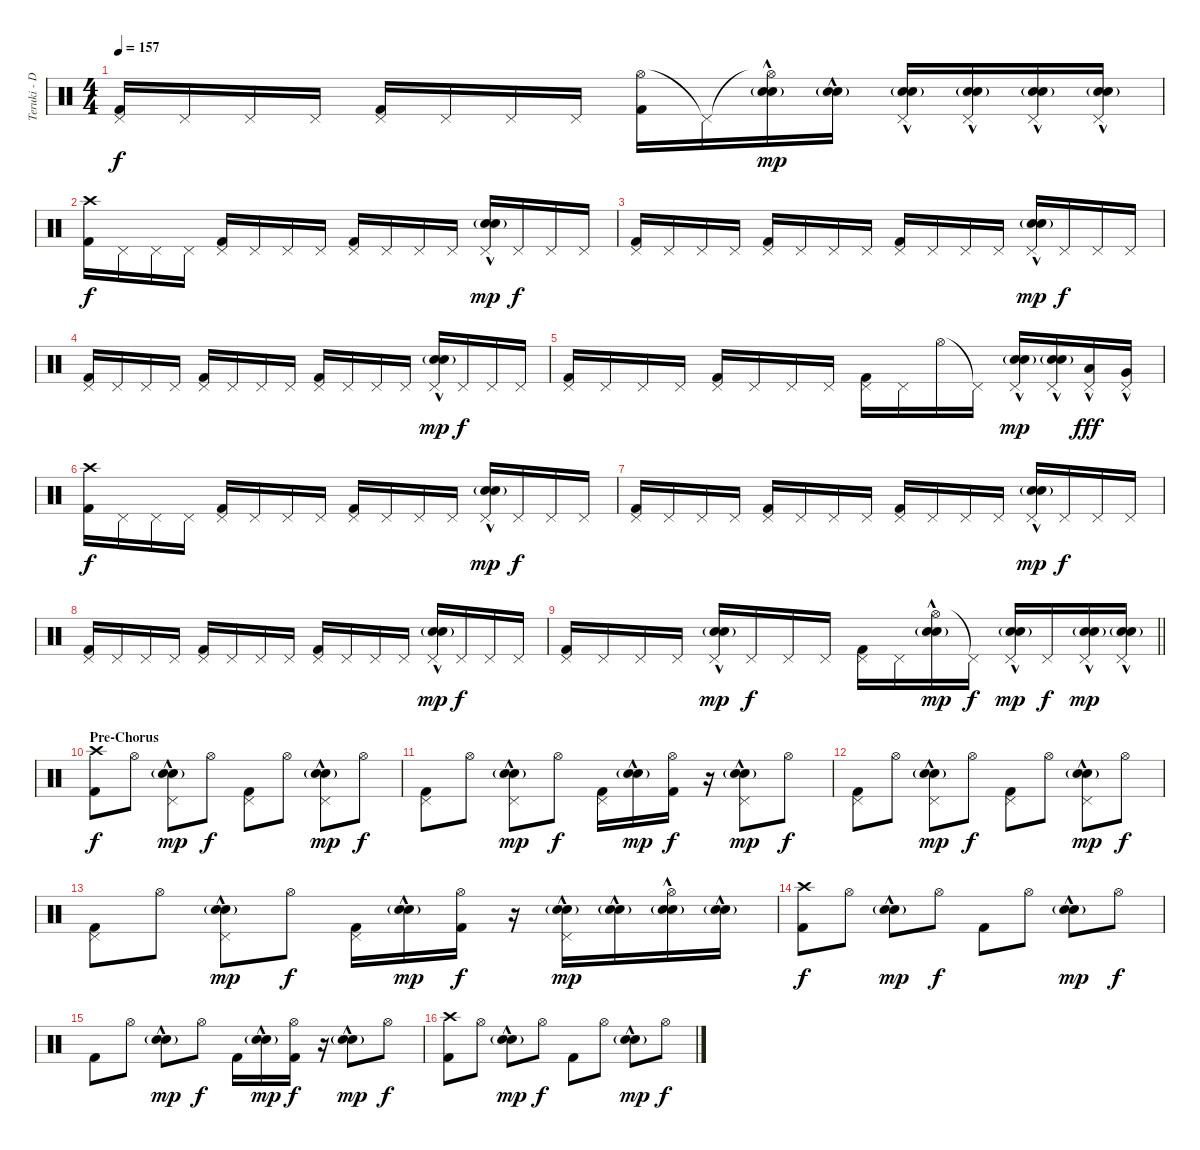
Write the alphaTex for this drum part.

\track ("Teruki - Drums" "Teruki - D") {instrument percussion}
\staff {score}
\articulation defaults
\ts (4 4)
\tempo 157
\clef neutral
\ks c
("Pedal Hi-Hat (hit)" "Kick (hit) 2").16{dy f} "Pedal Hi-Hat (hit)".16 "Pedal Hi-Hat (hit)".16 "Pedal Hi-Hat (hit)".16 ("Pedal Hi-Hat (hit)" "Kick (hit) 2").16 "Pedal Hi-Hat (hit)".16 "Pedal Hi-Hat (hit)".16 "Pedal Hi-Hat (hit)".16 ("Hi-Hat (open)" "Kick (hit) 2").16 "Pedal Hi-Hat (hit)"{t}.16 ("Hi-Hat (open)"{t} "Electric Snare (hit)"{hac} "Snare (hit) 2"{g}).16{dy mp} ("Electric Snare (hit)"{hac} "Snare (hit) 2"{g}).16 ("Pedal Hi-Hat (hit)" "Electric Snare (hit)"{hac} "Snare (hit) 2"{g}).16 ("Pedal Hi-Hat (hit)" "Electric Snare (hit)"{hac} "Snare (hit) 2"{g}).16 ("Pedal Hi-Hat (hit)" "Electric Snare (hit)"{hac} "Snare (hit) 2"{g}).16 ("Pedal Hi-Hat (hit)" "Electric Snare (hit)"{hac} "Snare (hit) 2"{g}).16 |
("Crash high (hit)" "Kick (hit) 2").16{dy f} "Pedal Hi-Hat (hit)".16 "Pedal Hi-Hat (hit)".16 "Pedal Hi-Hat (hit)".16 ("Pedal Hi-Hat (hit)" "Kick (hit) 2").16 "Pedal Hi-Hat (hit)".16 "Pedal Hi-Hat (hit)".16 "Pedal Hi-Hat (hit)".16 ("Pedal Hi-Hat (hit)" "Kick (hit) 2").16 "Pedal Hi-Hat (hit)".16 "Pedal Hi-Hat (hit)".16 "Pedal Hi-Hat (hit)".16 ("Pedal Hi-Hat (hit)" "Electric Snare (hit)"{hac} "Snare (hit) 2"{g}).16{dy mp} "Pedal Hi-Hat (hit)".16{dy f} "Pedal Hi-Hat (hit)".16 "Pedal Hi-Hat (hit)".16 |
("Pedal Hi-Hat (hit)" "Kick (hit) 2").16 "Pedal Hi-Hat (hit)".16 "Pedal Hi-Hat (hit)".16 "Pedal Hi-Hat (hit)".16 ("Pedal Hi-Hat (hit)" "Kick (hit) 2").16 "Pedal Hi-Hat (hit)".16 "Pedal Hi-Hat (hit)".16 "Pedal Hi-Hat (hit)".16 ("Pedal Hi-Hat (hit)" "Kick (hit) 2").16 "Pedal Hi-Hat (hit)".16 "Pedal Hi-Hat (hit)".16 "Pedal Hi-Hat (hit)".16 ("Pedal Hi-Hat (hit)" "Electric Snare (hit)"{hac} "Snare (hit) 2"{g}).16{dy mp} "Pedal Hi-Hat (hit)".16{dy f} "Pedal Hi-Hat (hit)".16 "Pedal Hi-Hat (hit)".16 |
("Pedal Hi-Hat (hit)" "Kick (hit) 2").16 "Pedal Hi-Hat (hit)".16 "Pedal Hi-Hat (hit)".16 "Pedal Hi-Hat (hit)".16 ("Pedal Hi-Hat (hit)" "Kick (hit) 2").16 "Pedal Hi-Hat (hit)".16 "Pedal Hi-Hat (hit)".16 "Pedal Hi-Hat (hit)".16 ("Pedal Hi-Hat (hit)" "Kick (hit) 2").16 "Pedal Hi-Hat (hit)".16 "Pedal Hi-Hat (hit)".16 "Pedal Hi-Hat (hit)".16 ("Pedal Hi-Hat (hit)" "Electric Snare (hit)"{hac} "Snare (hit) 2"{g}).16{dy mp} "Pedal Hi-Hat (hit)".16{dy f} "Pedal Hi-Hat (hit)".16 "Pedal Hi-Hat (hit)".16 |
("Pedal Hi-Hat (hit)" "Kick (hit) 2").16 "Pedal Hi-Hat (hit)".16 "Pedal Hi-Hat (hit)".16 "Pedal Hi-Hat (hit)".16 ("Pedal Hi-Hat (hit)" "Kick (hit) 2").16 "Pedal Hi-Hat (hit)".16 "Pedal Hi-Hat (hit)".16 "Pedal Hi-Hat (hit)".16 ("Pedal Hi-Hat (hit)" "Kick (hit) 2").16 "Pedal Hi-Hat (hit)".16 "Hi-Hat (open)".16 "Pedal Hi-Hat (hit)"{t}.16 ("Pedal Hi-Hat (hit)" "Electric Snare (hit)"{hac} "Snare (hit) 2"{g}).16{dy mp} ("Pedal Hi-Hat (hit)" "Electric Snare (hit)"{hac} "Snare (hit) 2"{g}).16 ("Pedal Hi-Hat (hit)" "Low Tom (hit)"{hac}).16{dy fff} ("Pedal Hi-Hat (hit)" "Very Low Tom (hit)"{hac}).16 |
("Crash high (hit)" "Kick (hit) 2").16{dy f} "Pedal Hi-Hat (hit)".16 "Pedal Hi-Hat (hit)".16 "Pedal Hi-Hat (hit)".16 ("Pedal Hi-Hat (hit)" "Kick (hit) 2").16 "Pedal Hi-Hat (hit)".16 "Pedal Hi-Hat (hit)".16 "Pedal Hi-Hat (hit)".16 ("Pedal Hi-Hat (hit)" "Kick (hit) 2").16 "Pedal Hi-Hat (hit)".16 "Pedal Hi-Hat (hit)".16 "Pedal Hi-Hat (hit)".16 ("Pedal Hi-Hat (hit)" "Electric Snare (hit)"{hac} "Snare (hit) 2"{g}).16{dy mp} "Pedal Hi-Hat (hit)".16{dy f} "Pedal Hi-Hat (hit)".16 "Pedal Hi-Hat (hit)".16 |
("Pedal Hi-Hat (hit)" "Kick (hit) 2").16 "Pedal Hi-Hat (hit)".16 "Pedal Hi-Hat (hit)".16 "Pedal Hi-Hat (hit)".16 ("Pedal Hi-Hat (hit)" "Kick (hit) 2").16 "Pedal Hi-Hat (hit)".16 "Pedal Hi-Hat (hit)".16 "Pedal Hi-Hat (hit)".16 ("Pedal Hi-Hat (hit)" "Kick (hit) 2").16 "Pedal Hi-Hat (hit)".16 "Pedal Hi-Hat (hit)".16 "Pedal Hi-Hat (hit)".16 ("Pedal Hi-Hat (hit)" "Electric Snare (hit)"{hac} "Snare (hit) 2"{g}).16{dy mp} "Pedal Hi-Hat (hit)".16{dy f} "Pedal Hi-Hat (hit)".16 "Pedal Hi-Hat (hit)".16 |
("Pedal Hi-Hat (hit)" "Kick (hit) 2").16 "Pedal Hi-Hat (hit)".16 "Pedal Hi-Hat (hit)".16 "Pedal Hi-Hat (hit)".16 ("Pedal Hi-Hat (hit)" "Kick (hit) 2").16 "Pedal Hi-Hat (hit)".16 "Pedal Hi-Hat (hit)".16 "Pedal Hi-Hat (hit)".16 ("Pedal Hi-Hat (hit)" "Kick (hit) 2").16 "Pedal Hi-Hat (hit)".16 "Pedal Hi-Hat (hit)".16 "Pedal Hi-Hat (hit)".16 ("Pedal Hi-Hat (hit)" "Electric Snare (hit)"{hac} "Snare (hit) 2"{g}).16{dy mp} "Pedal Hi-Hat (hit)".16{dy f} "Pedal Hi-Hat (hit)".16 "Pedal Hi-Hat (hit)".16 |
\barLineRight lightlight
("Pedal Hi-Hat (hit)" "Kick (hit) 2").16 "Pedal Hi-Hat (hit)".16 "Pedal Hi-Hat (hit)".16 "Pedal Hi-Hat (hit)".16 ("Pedal Hi-Hat (hit)" "Electric Snare (hit)"{hac} "Snare (hit) 2"{g}).16{dy mp} "Pedal Hi-Hat (hit)".16{dy f} "Pedal Hi-Hat (hit)".16 "Pedal Hi-Hat (hit)".16 ("Pedal Hi-Hat (hit)" "Kick (hit) 2").16 "Pedal Hi-Hat (hit)".16 ("Hi-Hat (open)" "Electric Snare (hit)"{hac} "Snare (hit) 2"{g}).16{dy mp} "Pedal Hi-Hat (hit)"{t}.16{dy f} ("Pedal Hi-Hat (hit)" "Electric Snare (hit)"{hac} "Snare (hit) 2"{g}).16{dy mp} "Pedal Hi-Hat (hit)".16{dy f} ("Pedal Hi-Hat (hit)" "Electric Snare (hit)"{hac} "Snare (hit) 2"{g}).16{dy mp} ("Pedal Hi-Hat (hit)" "Electric Snare (hit)"{hac} "Snare (hit) 2"{g}).16 |
\section ("" "Pre-Chorus")
("Crash high (hit)" "Kick (hit) 2").8{dy f} "Hi-Hat (open)".8 ("Pedal Hi-Hat (hit)" "Electric Snare (hit)"{hac} "Snare (hit) 2"{g}).8{dy mp} "Hi-Hat (open)".8{dy f} ("Pedal Hi-Hat (hit)" "Kick (hit) 2").8 "Hi-Hat (open)".8 ("Pedal Hi-Hat (hit)" "Electric Snare (hit)"{hac} "Snare (hit) 2"{g}).8{dy mp} "Hi-Hat (open)".8{dy f} |
("Pedal Hi-Hat (hit)" "Kick (hit) 2").8 "Hi-Hat (open)".8 ("Pedal Hi-Hat (hit)" "Electric Snare (hit)"{hac} "Snare (hit) 2"{g}).8{dy mp} "Hi-Hat (open)".8{dy f} ("Pedal Hi-Hat (hit)" "Kick (hit) 2").16 ("Electric Snare (hit)"{hac} "Snare (hit) 2"{g}).16{dy mp} ("Hi-Hat (open)" "Kick (hit) 2").16{dy f} r.16 ("Pedal Hi-Hat (hit)" "Electric Snare (hit)"{hac} "Snare (hit) 2"{g}).8{dy mp} "Hi-Hat (open)".8{dy f} |
("Pedal Hi-Hat (hit)" "Kick (hit) 2").8 "Hi-Hat (open)".8 ("Pedal Hi-Hat (hit)" "Electric Snare (hit)"{hac} "Snare (hit) 2"{g}).8{dy mp} "Hi-Hat (open)".8{dy f} ("Pedal Hi-Hat (hit)" "Kick (hit) 2").8 "Hi-Hat (open)".8 ("Pedal Hi-Hat (hit)" "Electric Snare (hit)"{hac} "Snare (hit) 2"{g}).8{dy mp} "Hi-Hat (open)".8{dy f} |
("Pedal Hi-Hat (hit)" "Kick (hit) 2").8 "Hi-Hat (open)".8 ("Pedal Hi-Hat (hit)" "Electric Snare (hit)"{hac} "Snare (hit) 2"{g}).8{dy mp} "Hi-Hat (open)".8{dy f} ("Pedal Hi-Hat (hit)" "Kick (hit) 2").16 ("Electric Snare (hit)"{hac} "Snare (hit) 2"{g}).16{dy mp} ("Hi-Hat (open)" "Kick (hit) 2").16{dy f} r.16 ("Pedal Hi-Hat (hit)" "Electric Snare (hit)"{hac} "Snare (hit) 2"{g}).16{dy mp} ("Electric Snare (hit)"{hac} "Snare (hit) 2"{g}).16 ("Hi-Hat (open)" "Electric Snare (hit)"{hac} "Snare (hit) 2"{g}).16 ("Electric Snare (hit)"{hac} "Snare (hit) 2"{g}).16 |
("Crash high (hit)" "Kick (hit) 2").8{dy f} "Hi-Hat (open)".8 ("Electric Snare (hit)"{hac} "Snare (hit) 2"{g}).8{dy mp} "Hi-Hat (open)".8{dy f} "Kick (hit) 2".8 "Hi-Hat (open)".8 ("Electric Snare (hit)"{hac} "Snare (hit) 2"{g}).8{dy mp} "Hi-Hat (open)".8{dy f} |
"Kick (hit) 2".8 "Hi-Hat (open)".8 ("Electric Snare (hit)"{hac} "Snare (hit) 2"{g}).8{dy mp} "Hi-Hat (open)".8{dy f} "Kick (hit) 2".16 ("Electric Snare (hit)"{hac} "Snare (hit) 2"{g}).16{dy mp} ("Hi-Hat (open)" "Kick (hit) 2").16{dy f} r.16 ("Electric Snare (hit)"{hac} "Snare (hit) 2"{g}).8{dy mp} "Hi-Hat (open)".8{dy f} |
("Crash high (hit)" "Kick (hit) 2").8 "Hi-Hat (open)".8 ("Electric Snare (hit)"{hac} "Snare (hit) 2"{g}).8{dy mp} "Hi-Hat (open)".8{dy f} "Kick (hit) 2".8 "Hi-Hat (open)".8 ("Electric Snare (hit)"{hac} "Snare (hit) 2"{g}).8{dy mp} "Hi-Hat (open)".8{dy f}
